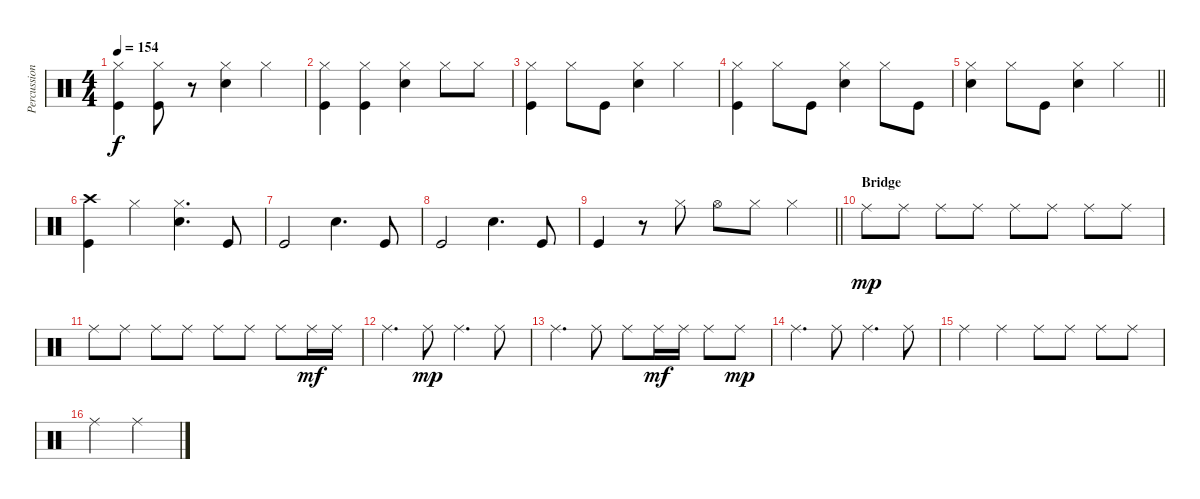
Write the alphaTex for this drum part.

\track ("Percussion" "Percussion") {instrument percussion}
\staff {score}
\articulation defaults
\ts (4 4)
\tempo 154
\clef neutral
\ks c
("Hi-Hat (closed)" "Kick (hit)").4{dy f} ("Hi-Hat (closed)" "Kick (hit)").8 r.8 ("Hi-Hat (closed)" "Snare (hit) 2").4 "Hi-Hat (closed)".4 |
("Hi-Hat (closed)" "Kick (hit)").4 ("Hi-Hat (closed)" "Kick (hit)").4 ("Hi-Hat (closed)" "Snare (hit) 2").4 "Hi-Hat (closed)".8 "Hi-Hat (closed)".8 |
("Hi-Hat (closed)" "Kick (hit)").4 "Hi-Hat (closed)".8 "Kick (hit)".8 ("Hi-Hat (closed)" "Snare (hit) 2").4 "Hi-Hat (closed)".4 |
("Hi-Hat (closed)" "Kick (hit)").4 "Hi-Hat (closed)".8 "Kick (hit)".8 ("Hi-Hat (closed)" "Snare (hit) 2").4 "Hi-Hat (closed)".8 "Kick (hit)".8 |
\barLineRight lightlight
("Hi-Hat (closed)" "Snare (hit) 2").4 "Hi-Hat (closed)".8 "Kick (hit)".8 ("Hi-Hat (closed)" "Snare (hit) 2").4 "Hi-Hat (closed)".4 |
("Crash high (hit)" "Kick (hit)").4 "Hi-Hat (closed)".4 ("Hi-Hat (closed)" "Snare (hit) 2").4{d} "Kick (hit)".8 |
"Kick (hit)".2 "Snare (hit) 2".4{d} "Kick (hit)".8 |
"Kick (hit)".2 "Snare (hit) 2".4{d} "Kick (hit)".8 |
\barLineRight lightlight "Kick (hit)".4
r.8 "Hi-Hat (closed)".8 "Hi-Hat (open)".8 "Hi-Hat (closed)".8 "Hi-Hat (closed)".4 |
\section ("" "Bridge")
"Ride (middle)".8{dy mp} "Ride (middle)".8 "Ride (middle)".8 "Ride (middle)".8 "Ride (middle)".8 "Ride (middle)".8 "Ride (middle)".8 "Ride (middle)".8 |
"Ride (middle)".8 "Ride (middle)".8 "Ride (middle)".8 "Ride (middle)".8 "Ride (middle)".8 "Ride (middle)".8 "Ride (middle)".8 "Ride (middle)".16{dy mf} "Ride (middle)".16 |
"Ride (middle)".4{d} "Ride (middle)".8{dy mp} "Ride (middle)".4{d} "Ride (middle)".8 |
"Ride (middle)".4{d} "Ride (middle)".8 "Ride (middle)".8 "Ride (middle)".16{dy mf} "Ride (middle)".16 "Ride (middle)".8 "Ride (middle)".8{dy mp} |
"Ride (middle)".4{d} "Ride (middle)".8 "Ride (middle)".4{d} "Ride (middle)".8 |
"Ride (middle)".4 "Ride (middle)".4 "Ride (middle)".8 "Ride (middle)".8 "Ride (middle)".8 "Ride (middle)".8 |
"Ride (middle)".2 "Ride (middle)".2
